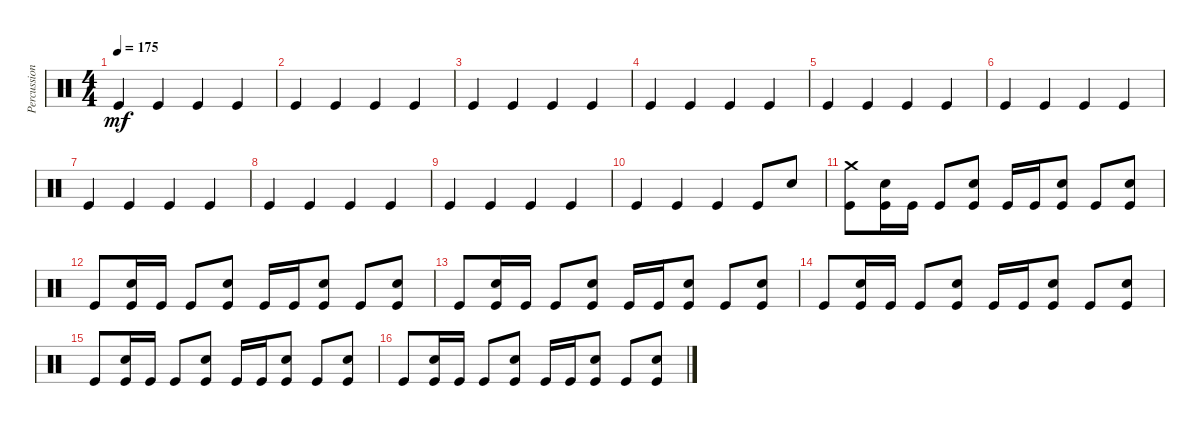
\track ("Percussioni" "Percussion") {instrument percussion}
\staff {score}
\articulation defaults
\ts (4 4)
\tempo 175
\clef neutral
\ks c "Kick (hit)".4{dy mf} "Kick (hit)".4 "Kick (hit)".4 "Kick (hit)".4
|
"Kick (hit)".4 "Kick (hit)".4 "Kick (hit)".4 "Kick (hit)".4 |
"Kick (hit)".4 "Kick (hit)".4 "Kick (hit)".4 "Kick (hit)".4 |
"Kick (hit)".4 "Kick (hit)".4 "Kick (hit)".4 "Kick (hit)".4 |
"Kick (hit)".4 "Kick (hit)".4 "Kick (hit)".4 "Kick (hit)".4 |
"Kick (hit)".4 "Kick (hit)".4 "Kick (hit)".4 "Kick (hit)".4 |
"Kick (hit)".4 "Kick (hit)".4 "Kick (hit)".4 "Kick (hit)".4 |
"Kick (hit)".4 "Kick (hit)".4 "Kick (hit)".4 "Kick (hit)".4 |
"Kick (hit)".4 "Kick (hit)".4 "Kick (hit)".4 "Kick (hit)".4 |
"Kick (hit)".4 "Kick (hit)".4 "Kick (hit)".4 "Kick (hit)".8 "Electric Snare (hit)".8 |
("Crash medium (hit)" "Kick (hit)").8 ("Electric Snare (hit)" "Kick (hit)").16 "Kick (hit)".16 "Kick (hit)".8 ("Electric Snare (hit)" "Kick (hit)").8 "Kick (hit)".16 "Kick (hit)".16 ("Electric Snare (hit)" "Kick (hit)").8 "Kick (hit)".8 ("Electric Snare (hit)" "Kick (hit)").8 |
"Kick (hit)".8 ("Electric Snare (hit)" "Kick (hit)").16 "Kick (hit)".16 "Kick (hit)".8 ("Electric Snare (hit)" "Kick (hit)").8 "Kick (hit)".16 "Kick (hit)".16 ("Electric Snare (hit)" "Kick (hit)").8 "Kick (hit)".8 ("Electric Snare (hit)" "Kick (hit)").8 |
"Kick (hit)".8 ("Electric Snare (hit)" "Kick (hit)").16 "Kick (hit)".16 "Kick (hit)".8 ("Electric Snare (hit)" "Kick (hit)").8 "Kick (hit)".16 "Kick (hit)".16 ("Electric Snare (hit)" "Kick (hit)").8 "Kick (hit)".8 ("Electric Snare (hit)" "Kick (hit)").8 |
"Kick (hit)".8 ("Electric Snare (hit)" "Kick (hit)").16 "Kick (hit)".16 "Kick (hit)".8 ("Electric Snare (hit)" "Kick (hit)").8 "Kick (hit)".16 "Kick (hit)".16 ("Electric Snare (hit)" "Kick (hit)").8 "Kick (hit)".8 ("Electric Snare (hit)" "Kick (hit)").8 |
"Kick (hit)".8 ("Electric Snare (hit)" "Kick (hit)").16 "Kick (hit)".16 "Kick (hit)".8 ("Electric Snare (hit)" "Kick (hit)").8 "Kick (hit)".16 "Kick (hit)".16 ("Electric Snare (hit)" "Kick (hit)").8 "Kick (hit)".8 ("Electric Snare (hit)" "Kick (hit)").8 |
"Kick (hit)".8 ("Electric Snare (hit)" "Kick (hit)").16 "Kick (hit)".16 "Kick (hit)".8 ("Electric Snare (hit)" "Kick (hit)").8 "Kick (hit)".16 "Kick (hit)".16 ("Electric Snare (hit)" "Kick (hit)").8 "Kick (hit)".8 ("Electric Snare (hit)" "Kick (hit)").8
